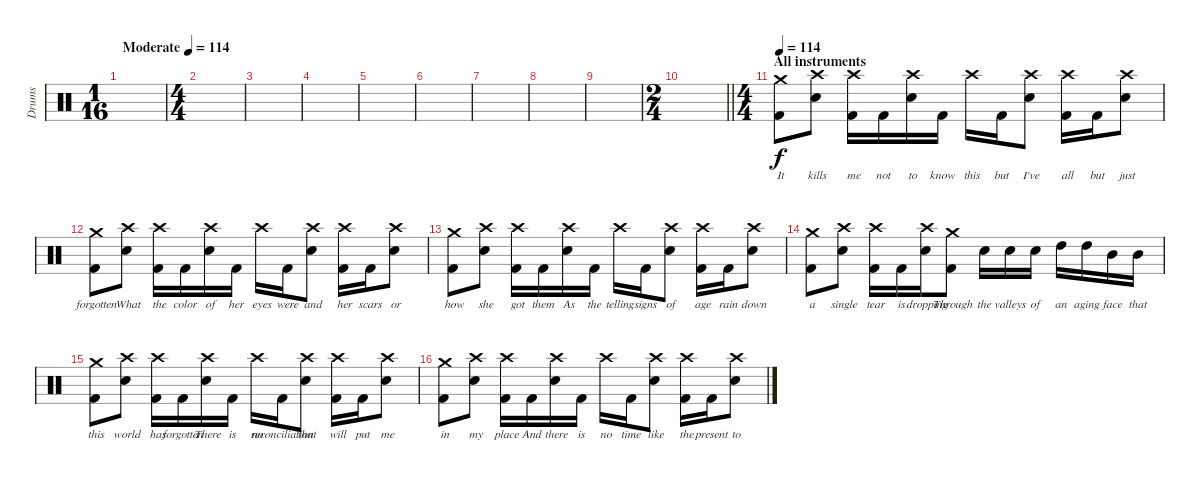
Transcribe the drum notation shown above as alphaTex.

\track ("Drums" "Drums") {instrument percussion}
\staff {score}
\articulation defaults
\ts (1 16)
\tempo (114 "Moderate")
\tempo 92
\tempo (114 "Moderate")
\clef neutral
\ks c
|
\ts (4 4)
|
|
|
|
|
|
|
|
\ts (2 4)
\barLineRight lightlight
|
\ts (4 4)
\section ("" "All instruments")
\tempo 114
("Crash medium (hit)" "Kick (hit) 2").8{lyrics (0 "It") lyrics (1 "") lyrics (2 "") lyrics (3 "") lyrics (4 "")} ("Crash high (hit)" "Electric Snare (hit)").8{lyrics (0 "kills") lyrics (1 "") lyrics (2 "") lyrics (3 "") lyrics (4 "")} ("Crash high (hit)" "Kick (hit) 2").16{lyrics (0 "me") lyrics (1 "") lyrics (2 "") lyrics (3 "") lyrics (4 "")} "Kick (hit) 2".16{lyrics (0 "not") lyrics (1 "") lyrics (2 "") lyrics (3 "") lyrics (4 "")} ("Crash high (hit)" "Electric Snare (hit)").16{lyrics (0 "to") lyrics (1 "") lyrics (2 "") lyrics (3 "") lyrics (4 "")} "Kick (hit) 2".16{lyrics (0 "know") lyrics (1 "") lyrics (2 "") lyrics (3 "") lyrics (4 "")} "Crash high (hit)".16{lyrics (0 "this") lyrics (1 "") lyrics (2 "") lyrics (3 "") lyrics (4 "")} "Kick (hit) 2".16{lyrics (0 "but") lyrics (1 "") lyrics (2 "") lyrics (3 "") lyrics (4 "")} ("Crash high (hit)" "Electric Snare (hit)").8{lyrics (0 "I've") lyrics (1 "") lyrics (2 "") lyrics (3 "") lyrics (4 "")} ("Crash high (hit)" "Kick (hit) 2").16{lyrics (0 "all") lyrics (1 "") lyrics (2 "") lyrics (3 "") lyrics (4 "")} "Kick (hit) 2".16{lyrics (0 "but") lyrics (1 "") lyrics (2 "") lyrics (3 "") lyrics (4 "")} ("Crash high (hit)" "Electric Snare (hit)").8{lyrics (0 "just") lyrics (1 "") lyrics (2 "") lyrics (3 "") lyrics (4 "")} |
("Crash medium (hit)" "Kick (hit) 2").8{lyrics (0 "forgotten") lyrics (1 "") lyrics (2 "") lyrics (3 "") lyrics (4 "")} ("Crash high (hit)" "Electric Snare (hit)").8{lyrics (0 "What") lyrics (1 "") lyrics (2 "") lyrics (3 "") lyrics (4 "")} ("Crash high (hit)" "Kick (hit) 2").16{lyrics (0 "the") lyrics (1 "") lyrics (2 "") lyrics (3 "") lyrics (4 "")} "Kick (hit) 2".16{lyrics (0 "color") lyrics (1 "") lyrics (2 "") lyrics (3 "") lyrics (4 "")} ("Crash high (hit)" "Electric Snare (hit)").16{lyrics (0 "of") lyrics (1 "") lyrics (2 "") lyrics (3 "") lyrics (4 "")} "Kick (hit) 2".16{lyrics (0 "her") lyrics (1 "") lyrics (2 "") lyrics (3 "") lyrics (4 "")} "Crash high (hit)".16{lyrics (0 "eyes") lyrics (1 "") lyrics (2 "") lyrics (3 "") lyrics (4 "")} "Kick (hit) 2".16{lyrics (0 "were") lyrics (1 "") lyrics (2 "") lyrics (3 "") lyrics (4 "")} ("Crash high (hit)" "Electric Snare (hit)").8{lyrics (0 "and") lyrics (1 "") lyrics (2 "") lyrics (3 "") lyrics (4 "")} ("Crash high (hit)" "Kick (hit) 2").16{lyrics (0 "her") lyrics (1 "") lyrics (2 "") lyrics (3 "") lyrics (4 "")} "Kick (hit) 2".16{lyrics (0 "scars") lyrics (1 "") lyrics (2 "") lyrics (3 "") lyrics (4 "")} ("Crash high (hit)" "Electric Snare (hit)").8{lyrics (0 "or") lyrics (1 "") lyrics (2 "") lyrics (3 "") lyrics (4 "")} |
("Crash medium (hit)" "Kick (hit) 2").8{lyrics (0 "how") lyrics (1 "") lyrics (2 "") lyrics (3 "") lyrics (4 "")} ("Crash high (hit)" "Electric Snare (hit)").8{lyrics (0 "she") lyrics (1 "") lyrics (2 "") lyrics (3 "") lyrics (4 "")} ("Crash high (hit)" "Kick (hit) 2").16{lyrics (0 "got") lyrics (1 "") lyrics (2 "") lyrics (3 "") lyrics (4 "")} "Kick (hit) 2".16{lyrics (0 "them") lyrics (1 "") lyrics (2 "") lyrics (3 "") lyrics (4 "")} ("Crash high (hit)" "Electric Snare (hit)").16{lyrics (0 "As") lyrics (1 "") lyrics (2 "") lyrics (3 "") lyrics (4 "")} "Kick (hit) 2".16{lyrics (0 "the") lyrics (1 "") lyrics (2 "") lyrics (3 "") lyrics (4 "")} "Crash high (hit)".16{lyrics (0 "telling") lyrics (1 "") lyrics (2 "") lyrics (3 "") lyrics (4 "")} "Kick (hit) 2".16{lyrics (0 "signs") lyrics (1 "") lyrics (2 "") lyrics (3 "") lyrics (4 "")} ("Crash high (hit)" "Electric Snare (hit)").8{lyrics (0 "of") lyrics (1 "") lyrics (2 "") lyrics (3 "") lyrics (4 "")} ("Crash high (hit)" "Kick (hit) 2").16{lyrics (0 "age") lyrics (1 "") lyrics (2 "") lyrics (3 "") lyrics (4 "")} "Kick (hit) 2".16{lyrics (0 "rain") lyrics (1 "") lyrics (2 "") lyrics (3 "") lyrics (4 "")} ("Crash high (hit)" "Electric Snare (hit)").8{lyrics (0 "down") lyrics (1 "") lyrics (2 "") lyrics (3 "") lyrics (4 "")} |
("Crash medium (hit)" "Kick (hit) 2").8{lyrics (0 "a") lyrics (1 "") lyrics (2 "") lyrics (3 "") lyrics (4 "")} ("Crash high (hit)" "Electric Snare (hit)").8{lyrics (0 "single") lyrics (1 "") lyrics (2 "") lyrics (3 "") lyrics (4 "")} ("Crash high (hit)" "Kick (hit) 2").16{lyrics (0 "tear") lyrics (1 "") lyrics (2 "") lyrics (3 "") lyrics (4 "")} "Kick (hit) 2".16{lyrics (0 "is") lyrics (1 "") lyrics (2 "") lyrics (3 "") lyrics (4 "")} ("Crash high (hit)" "Electric Snare (hit)").16{lyrics (0 "dropping") lyrics (1 "") lyrics (2 "") lyrics (3 "") lyrics (4 "")} ("Crash medium (hit)" "Kick (hit) 2").8{lyrics (0 "Through") lyrics (1 "") lyrics (2 "") lyrics (3 "") lyrics (4 "")} "Electric Snare (hit)".16{lyrics (0 "the") lyrics (1 "") lyrics (2 "") lyrics (3 "") lyrics (4 "")} "Electric Snare (hit)".16{lyrics (0 "valleys") lyrics (1 "") lyrics (2 "") lyrics (3 "") lyrics (4 "")} "Electric Snare (hit)".16{lyrics (0 "of") lyrics (1 "") lyrics (2 "") lyrics (3 "") lyrics (4 "")} "High Tom (hit)".16{lyrics (0 "an") lyrics (1 "") lyrics (2 "") lyrics (3 "") lyrics (4 "")} "High Tom (hit)".16{lyrics (0 "aging") lyrics (1 "") lyrics (2 "") lyrics (3 "") lyrics (4 "")} "Mid Tom (hit)".16{lyrics (0 "face") lyrics (1 "") lyrics (2 "") lyrics (3 "") lyrics (4 "")} "Mid Tom (hit)".16{lyrics (0 "that") lyrics (1 "") lyrics (2 "") lyrics (3 "") lyrics (4 "")} |
("Crash medium (hit)" "Kick (hit) 2").8{lyrics (0 "this") lyrics (1 "") lyrics (2 "") lyrics (3 "") lyrics (4 "")} ("Crash high (hit)" "Electric Snare (hit)").8{lyrics (0 "world") lyrics (1 "") lyrics (2 "") lyrics (3 "") lyrics (4 "")} ("Crash high (hit)" "Kick (hit) 2").16{lyrics (0 "has") lyrics (1 "") lyrics (2 "") lyrics (3 "") lyrics (4 "")} "Kick (hit) 2".16{lyrics (0 "forgotten") lyrics (1 "") lyrics (2 "") lyrics (3 "") lyrics (4 "")} ("Crash high (hit)" "Electric Snare (hit)").16{lyrics (0 "There") lyrics (1 "") lyrics (2 "") lyrics (3 "") lyrics (4 "")} "Kick (hit) 2".16{lyrics (0 "is") lyrics (1 "") lyrics (2 "") lyrics (3 "") lyrics (4 "")} "Crash high (hit)".16{lyrics (0 "no") lyrics (1 "") lyrics (2 "") lyrics (3 "") lyrics (4 "")} "Kick (hit) 2".16{lyrics (0 "reconciliation") lyrics (1 "") lyrics (2 "") lyrics (3 "") lyrics (4 "")} ("Crash high (hit)" "Electric Snare (hit)").8{lyrics (0 "that") lyrics (1 "") lyrics (2 "") lyrics (3 "") lyrics (4 "")} ("Crash high (hit)" "Kick (hit) 2").16{lyrics (0 "will") lyrics (1 "") lyrics (2 "") lyrics (3 "") lyrics (4 "")} "Kick (hit) 2".16{lyrics (0 "put") lyrics (1 "") lyrics (2 "") lyrics (3 "") lyrics (4 "")} ("Crash high (hit)" "Electric Snare (hit)").8{lyrics (0 "me") lyrics (1 "") lyrics (2 "") lyrics (3 "") lyrics (4 "")} |
("Crash medium (hit)" "Kick (hit) 2").8{lyrics (0 "in") lyrics (1 "") lyrics (2 "") lyrics (3 "") lyrics (4 "")} ("Crash high (hit)" "Electric Snare (hit)").8{lyrics (0 "my") lyrics (1 "") lyrics (2 "") lyrics (3 "") lyrics (4 "")} ("Crash high (hit)" "Kick (hit) 2").16{lyrics (0 "place") lyrics (1 "") lyrics (2 "") lyrics (3 "") lyrics (4 "")} "Kick (hit) 2".16{lyrics (0 "And") lyrics (1 "") lyrics (2 "") lyrics (3 "") lyrics (4 "")} ("Crash high (hit)" "Electric Snare (hit)").16{lyrics (0 "there") lyrics (1 "") lyrics (2 "") lyrics (3 "") lyrics (4 "")} "Kick (hit) 2".16{lyrics (0 "is") lyrics (1 "") lyrics (2 "") lyrics (3 "") lyrics (4 "")} "Crash high (hit)".16{lyrics (0 "no") lyrics (1 "") lyrics (2 "") lyrics (3 "") lyrics (4 "")} "Kick (hit) 2".16{lyrics (0 "time") lyrics (1 "") lyrics (2 "") lyrics (3 "") lyrics (4 "")} ("Crash high (hit)" "Electric Snare (hit)").8{lyrics (0 "like") lyrics (1 "") lyrics (2 "") lyrics (3 "") lyrics (4 "")} ("Crash high (hit)" "Kick (hit) 2").16{lyrics (0 "the") lyrics (1 "") lyrics (2 "") lyrics (3 "") lyrics (4 "")} "Kick (hit) 2".16{lyrics (0 "present") lyrics (1 "") lyrics (2 "") lyrics (3 "") lyrics (4 "")} ("Crash high (hit)" "Electric Snare (hit)").8{lyrics (0 "to") lyrics (1 "") lyrics (2 "") lyrics (3 "") lyrics (4 "")}
